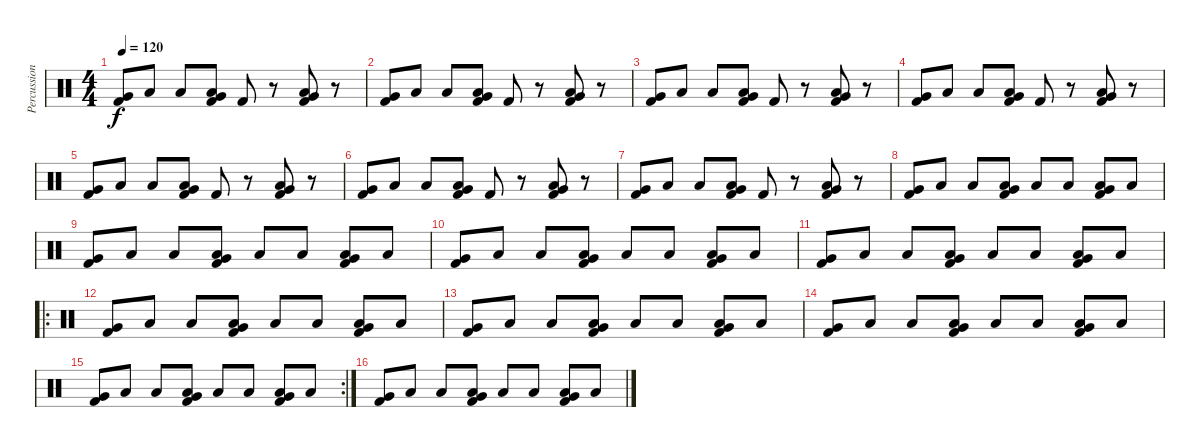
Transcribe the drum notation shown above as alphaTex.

\track ("Percussion" "Percussion") {instrument percussion}
\staff {score}
\articulation defaults
\ts (4 4)
\tempo 120
\clef neutral
\ks c
("Very Low Tom (hit)" "Kick (hit) 2").8{dy f} "Low Floor Tom (hit)".8 "Low Floor Tom (hit)".8 ("Low Floor Tom (hit)" "Very Low Tom (hit)" "Kick (hit) 2").8 "Kick (hit) 2".8 r.8 ("Low Floor Tom (hit)" "Very Low Tom (hit)" "Kick (hit) 2").8 r.8 |
("Very Low Tom (hit)" "Kick (hit) 2").8 "Low Floor Tom (hit)".8 "Low Floor Tom (hit)".8 ("Low Floor Tom (hit)" "Very Low Tom (hit)" "Kick (hit) 2").8 "Kick (hit) 2".8 r.8 ("Low Floor Tom (hit)" "Very Low Tom (hit)" "Kick (hit) 2").8 r.8 |
("Very Low Tom (hit)" "Kick (hit) 2").8 "Low Floor Tom (hit)".8 "Low Floor Tom (hit)".8 ("Low Floor Tom (hit)" "Very Low Tom (hit)" "Kick (hit) 2").8 "Kick (hit) 2".8 r.8 ("Low Floor Tom (hit)" "Very Low Tom (hit)" "Kick (hit) 2").8 r.8 |
("Very Low Tom (hit)" "Kick (hit) 2").8 "Low Floor Tom (hit)".8 "Low Floor Tom (hit)".8 ("Low Floor Tom (hit)" "Very Low Tom (hit)" "Kick (hit) 2").8 "Kick (hit) 2".8 r.8 ("Low Floor Tom (hit)" "Very Low Tom (hit)" "Kick (hit) 2").8 r.8 |
("Very Low Tom (hit)" "Kick (hit) 2").8 "Low Floor Tom (hit)".8 "Low Floor Tom (hit)".8 ("Low Floor Tom (hit)" "Very Low Tom (hit)" "Kick (hit) 2").8 "Kick (hit) 2".8 r.8 ("Low Floor Tom (hit)" "Very Low Tom (hit)" "Kick (hit) 2").8 r.8 |
("Very Low Tom (hit)" "Kick (hit) 2").8 "Low Floor Tom (hit)".8 "Low Floor Tom (hit)".8 ("Low Floor Tom (hit)" "Very Low Tom (hit)" "Kick (hit) 2").8 "Kick (hit) 2".8 r.8 ("Low Floor Tom (hit)" "Very Low Tom (hit)" "Kick (hit) 2").8 r.8 |
("Very Low Tom (hit)" "Kick (hit) 2").8 "Low Floor Tom (hit)".8 "Low Floor Tom (hit)".8 ("Low Floor Tom (hit)" "Very Low Tom (hit)" "Kick (hit) 2").8 "Kick (hit) 2".8 r.8 ("Low Floor Tom (hit)" "Very Low Tom (hit)" "Kick (hit) 2").8 r.8 |
("Very Low Tom (hit)" "Kick (hit) 2").8 "Low Floor Tom (hit)".8 "Low Floor Tom (hit)".8 ("Low Floor Tom (hit)" "Very Low Tom (hit)" "Kick (hit) 2").8 "Low Floor Tom (hit)".8 "Low Floor Tom (hit)".8 ("Low Floor Tom (hit)" "Very Low Tom (hit)" "Kick (hit) 2").8 "Low Floor Tom (hit)".8 |
("Very Low Tom (hit)" "Kick (hit) 2").8 "Low Floor Tom (hit)".8 "Low Floor Tom (hit)".8 ("Low Floor Tom (hit)" "Very Low Tom (hit)" "Kick (hit) 2").8 "Low Floor Tom (hit)".8 "Low Floor Tom (hit)".8 ("Low Floor Tom (hit)" "Very Low Tom (hit)" "Kick (hit) 2").8 "Low Floor Tom (hit)".8 |
("Very Low Tom (hit)" "Kick (hit) 2").8 "Low Floor Tom (hit)".8 "Low Floor Tom (hit)".8 ("Low Floor Tom (hit)" "Very Low Tom (hit)" "Kick (hit) 2").8 "Low Floor Tom (hit)".8 "Low Floor Tom (hit)".8 ("Low Floor Tom (hit)" "Very Low Tom (hit)" "Kick (hit) 2").8 "Low Floor Tom (hit)".8 |
("Very Low Tom (hit)" "Kick (hit) 2").8 "Low Floor Tom (hit)".8 "Low Floor Tom (hit)".8 ("Low Floor Tom (hit)" "Very Low Tom (hit)" "Kick (hit) 2").8 "Low Floor Tom (hit)".8 "Low Floor Tom (hit)".8 ("Low Floor Tom (hit)" "Very Low Tom (hit)" "Kick (hit) 2").8 "Low Floor Tom (hit)".8 |
\ro
("Very Low Tom (hit)" "Kick (hit) 2").8 "Low Floor Tom (hit)".8 "Low Floor Tom (hit)".8 ("Low Floor Tom (hit)" "Very Low Tom (hit)" "Kick (hit) 2").8 "Low Floor Tom (hit)".8 "Low Floor Tom (hit)".8 ("Low Floor Tom (hit)" "Very Low Tom (hit)" "Kick (hit) 2").8 "Low Floor Tom (hit)".8 |
("Very Low Tom (hit)" "Kick (hit) 2").8 "Low Floor Tom (hit)".8 "Low Floor Tom (hit)".8 ("Low Floor Tom (hit)" "Very Low Tom (hit)" "Kick (hit) 2").8 "Low Floor Tom (hit)".8 "Low Floor Tom (hit)".8 ("Low Floor Tom (hit)" "Very Low Tom (hit)" "Kick (hit) 2").8 "Low Floor Tom (hit)".8 |
("Very Low Tom (hit)" "Kick (hit) 2").8 "Low Floor Tom (hit)".8 "Low Floor Tom (hit)".8 ("Low Floor Tom (hit)" "Very Low Tom (hit)" "Kick (hit) 2").8 "Low Floor Tom (hit)".8 "Low Floor Tom (hit)".8 ("Low Floor Tom (hit)" "Very Low Tom (hit)" "Kick (hit) 2").8 "Low Floor Tom (hit)".8 |
\rc 2
("Very Low Tom (hit)" "Kick (hit) 2").8 "Low Floor Tom (hit)".8 "Low Floor Tom (hit)".8 ("Low Floor Tom (hit)" "Very Low Tom (hit)" "Kick (hit) 2").8 "Low Floor Tom (hit)".8 "Low Floor Tom (hit)".8 ("Low Floor Tom (hit)" "Very Low Tom (hit)" "Kick (hit) 2").8 "Low Floor Tom (hit)".8 |
("Very Low Tom (hit)" "Kick (hit) 2").8 "Low Floor Tom (hit)".8 "Low Floor Tom (hit)".8 ("Low Floor Tom (hit)" "Very Low Tom (hit)" "Kick (hit) 2").8 "Low Floor Tom (hit)".8 "Low Floor Tom (hit)".8 ("Low Floor Tom (hit)" "Very Low Tom (hit)" "Kick (hit) 2").8 "Low Floor Tom (hit)".8
